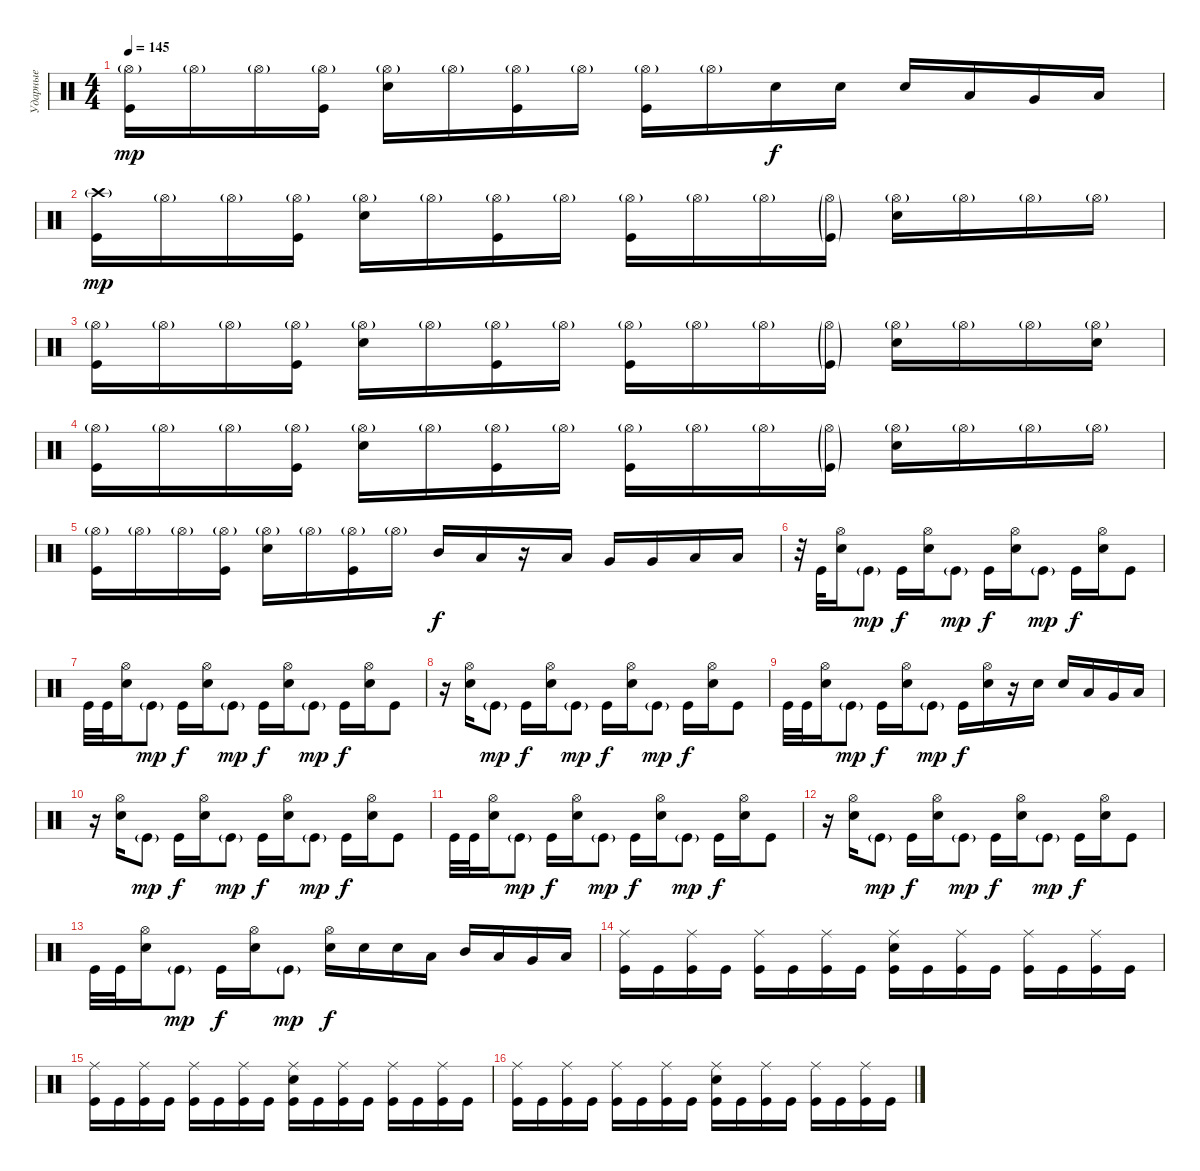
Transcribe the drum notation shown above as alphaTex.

\track ("Ударные" "Ударные") {instrument percussion}
\staff {score}
\articulation defaults
\ts (4 4)
\tempo 145
\clef neutral
\ks c
("Hi-Hat (open)"{g} "Kick (hit)").16{dy mp} "Hi-Hat (open)"{g}.16 "Hi-Hat (open)"{g}.16 ("Hi-Hat (open)"{g} "Kick (hit)").16 ("Hi-Hat (open)"{g} "Snare (hit) 2").16 "Hi-Hat (open)"{g}.16 ("Hi-Hat (open)"{g} "Kick (hit)").16 "Hi-Hat (open)"{g}.16 ("Hi-Hat (open)"{g} "Kick (hit)").16 "Hi-Hat (open)"{g}.16 "Snare (hit) 2".16{dy f} "Snare (hit) 2".16 "Snare (hit) 2".16 "Low Tom (hit)".16 "Very Low Tom (hit)".16 "Low Floor Tom (hit)".16 |
("Crash high (hit)"{g} "Kick (hit)").16{dy mp} "Hi-Hat (open)"{g}.16 "Hi-Hat (open)"{g}.16 ("Hi-Hat (open)"{g} "Kick (hit)").16 ("Hi-Hat (open)"{g} "Snare (hit) 2").16 "Hi-Hat (open)"{g}.16 ("Hi-Hat (open)"{g} "Kick (hit)").16 "Hi-Hat (open)"{g}.16 ("Hi-Hat (open)"{g} "Kick (hit)").16 "Hi-Hat (open)"{g}.16 "Hi-Hat (open)"{g}.16 ("Hi-Hat (open)"{g} "Kick (hit)"{g}).16 ("Hi-Hat (open)"{g} "Snare (hit) 2").16 "Hi-Hat (open)"{g}.16 "Hi-Hat (open)"{g}.16 "Hi-Hat (open)"{g}.16 |
("Hi-Hat (open)"{g} "Kick (hit)").16 "Hi-Hat (open)"{g}.16 "Hi-Hat (open)"{g}.16 ("Hi-Hat (open)"{g} "Kick (hit)").16 ("Hi-Hat (open)"{g} "Snare (hit) 2").16 "Hi-Hat (open)"{g}.16 ("Hi-Hat (open)"{g} "Kick (hit)").16 "Hi-Hat (open)"{g}.16 ("Hi-Hat (open)"{g} "Kick (hit)").16 "Hi-Hat (open)"{g}.16 "Hi-Hat (open)"{g}.16 ("Hi-Hat (open)"{g} "Kick (hit)"{g}).16 ("Hi-Hat (open)"{g} "Snare (hit) 2").16 "Hi-Hat (open)"{g}.16 "Hi-Hat (open)"{g}.16 ("Hi-Hat (open)"{g} "Snare (hit) 2").16 |
("Hi-Hat (open)"{g} "Kick (hit)").16 "Hi-Hat (open)"{g}.16 "Hi-Hat (open)"{g}.16 ("Hi-Hat (open)"{g} "Kick (hit)").16 ("Hi-Hat (open)"{g} "Snare (hit) 2").16 "Hi-Hat (open)"{g}.16 ("Hi-Hat (open)"{g} "Kick (hit)").16 "Hi-Hat (open)"{g}.16 ("Hi-Hat (open)"{g} "Kick (hit)").16 "Hi-Hat (open)"{g}.16 "Hi-Hat (open)"{g}.16 ("Hi-Hat (open)"{g} "Kick (hit)"{g}).16 ("Hi-Hat (open)"{g} "Snare (hit) 2").16 "Hi-Hat (open)"{g}.16 "Hi-Hat (open)"{g}.16 "Hi-Hat (open)"{g}.16 |
("Hi-Hat (open)"{g} "Kick (hit)").16 "Hi-Hat (open)"{g}.16 "Hi-Hat (open)"{g}.16 ("Hi-Hat (open)"{g} "Kick (hit)").16 ("Hi-Hat (open)"{g} "Snare (hit) 2").16 "Hi-Hat (open)"{g}.16 ("Hi-Hat (open)"{g} "Kick (hit)").16 "Hi-Hat (open)"{g}.16 "Mid Tom (hit)".16{dy f} "Low Tom (hit)".16 r.16 "Low Tom (hit)".16 "Very Low Tom (hit)".16 "Very Low Tom (hit)".16 "Low Floor Tom (hit)".16 "Low Floor Tom (hit)".16 |
r.32 "Kick (hit)".32 ("Hi-Hat (open)" "Snare (hit) 2").16 "Kick (hit)"{g}.8{dy mp} "Kick (hit)".16{dy f} ("Hi-Hat (open)" "Snare (hit) 2").16 "Kick (hit)"{g}.8{dy mp} "Kick (hit)".16{dy f} ("Hi-Hat (open)" "Snare (hit) 2").16 "Kick (hit)"{g}.8{dy mp} "Kick (hit)".16{dy f} ("Hi-Hat (open)" "Snare (hit) 2").16 "Kick (hit)".8 |
"Kick (hit)".32 "Kick (hit)".32 ("Hi-Hat (open)" "Snare (hit) 2").16 "Kick (hit)"{g}.8{dy mp} "Kick (hit)".16{dy f} ("Hi-Hat (open)" "Snare (hit) 2").16 "Kick (hit)"{g}.8{dy mp} "Kick (hit)".16{dy f} ("Hi-Hat (open)" "Snare (hit) 2").16 "Kick (hit)"{g}.8{dy mp} "Kick (hit)".16{dy f} ("Hi-Hat (open)" "Snare (hit) 2").16 "Kick (hit)".8 |
r.16 ("Hi-Hat (open)" "Snare (hit) 2").16 "Kick (hit)"{g}.8{dy mp} "Kick (hit)".16{dy f} ("Hi-Hat (open)" "Snare (hit) 2").16 "Kick (hit)"{g}.8{dy mp} "Kick (hit)".16{dy f} ("Hi-Hat (open)" "Snare (hit) 2").16 "Kick (hit)"{g}.8{dy mp} "Kick (hit)".16{dy f} ("Hi-Hat (open)" "Snare (hit) 2").16 "Kick (hit)".8 |
"Kick (hit)".32 "Kick (hit)".32 ("Hi-Hat (open)" "Snare (hit) 2").16 "Kick (hit)"{g}.8{dy mp} "Kick (hit)".16{dy f} ("Hi-Hat (open)" "Snare (hit) 2").16 "Kick (hit)"{g}.8{dy mp} "Kick (hit)".16{dy f} ("Hi-Hat (open)" "Snare (hit) 2").16 r.16 "Snare (hit) 2".16 "Snare (hit) 2".16 "Low Tom (hit)".16 "Very Low Tom (hit)".16 "Low Floor Tom (hit)".16 |
r.16 ("Hi-Hat (open)" "Snare (hit) 2").16 "Kick (hit)"{g}.8{dy mp} "Kick (hit)".16{dy f} ("Hi-Hat (open)" "Snare (hit) 2").16 "Kick (hit)"{g}.8{dy mp} "Kick (hit)".16{dy f} ("Hi-Hat (open)" "Snare (hit) 2").16 "Kick (hit)"{g}.8{dy mp} "Kick (hit)".16{dy f} ("Hi-Hat (open)" "Snare (hit) 2").16 "Kick (hit)".8 |
"Kick (hit)".32 "Kick (hit)".32 ("Hi-Hat (open)" "Snare (hit) 2").16 "Kick (hit)"{g}.8{dy mp} "Kick (hit)".16{dy f} ("Hi-Hat (open)" "Snare (hit) 2").16 "Kick (hit)"{g}.8{dy mp} "Kick (hit)".16{dy f} ("Hi-Hat (open)" "Snare (hit) 2").16 "Kick (hit)"{g}.8{dy mp} "Kick (hit)".16{dy f} ("Hi-Hat (open)" "Snare (hit) 2").16 "Kick (hit)".8 |
r.16 ("Hi-Hat (open)" "Snare (hit) 2").16 "Kick (hit)"{g}.8{dy mp} "Kick (hit)".16{dy f} ("Hi-Hat (open)" "Snare (hit) 2").16 "Kick (hit)"{g}.8{dy mp} "Kick (hit)".16{dy f} ("Hi-Hat (open)" "Snare (hit) 2").16 "Kick (hit)"{g}.8{dy mp} "Kick (hit)".16{dy f} ("Hi-Hat (open)" "Snare (hit) 2").16 "Kick (hit)".8 |
"Kick (hit)".32 "Kick (hit)".32 ("Hi-Hat (open)" "Snare (hit) 2").16 "Kick (hit)"{g}.8{dy mp} "Kick (hit)".16{dy f} ("Hi-Hat (open)" "Snare (hit) 2").16 "Kick (hit)"{g}.8{dy mp} ("Hi-Hat (open)" "Snare (hit) 2").16{dy f} "Snare (hit) 2".16 "Snare (hit) 2".16 "Low Tom (hit)".16 "Mid Tom (hit)".16 "Low Tom (hit)".16 "Very Low Tom (hit)".16 "Low Floor Tom (hit)".16 |
("Ride (middle)" "Kick (hit)").16 "Kick (hit)".16 ("Ride (middle)" "Kick (hit)").16 "Kick (hit)".16 ("Ride (middle)" "Kick (hit)").16 "Kick (hit)".16 ("Ride (middle)" "Kick (hit)").16 "Kick (hit)".16 ("Ride (middle)" "Snare (hit) 2" "Kick (hit)").16 "Kick (hit)".16 ("Ride (middle)" "Kick (hit)").16 "Kick (hit)".16 ("Ride (middle)" "Kick (hit)").16 "Kick (hit)".16 ("Ride (middle)" "Kick (hit)").16 "Kick (hit)".16 |
("Ride (middle)" "Kick (hit)").16 "Kick (hit)".16 ("Ride (middle)" "Kick (hit)").16 "Kick (hit)".16 ("Ride (middle)" "Kick (hit)").16 "Kick (hit)".16 ("Ride (middle)" "Kick (hit)").16 "Kick (hit)".16 ("Ride (middle)" "Snare (hit) 2" "Kick (hit)").16 "Kick (hit)".16 ("Ride (middle)" "Kick (hit)").16 "Kick (hit)".16 ("Ride (middle)" "Kick (hit)").16 "Kick (hit)".16 ("Ride (middle)" "Kick (hit)").16 "Kick (hit)".16 |
("Ride (middle)" "Kick (hit)").16 "Kick (hit)".16 ("Ride (middle)" "Kick (hit)").16 "Kick (hit)".16 ("Ride (middle)" "Kick (hit)").16 "Kick (hit)".16 ("Ride (middle)" "Kick (hit)").16 "Kick (hit)".16 ("Ride (middle)" "Snare (hit) 2" "Kick (hit)").16 "Kick (hit)".16 ("Ride (middle)" "Kick (hit)").16 "Kick (hit)".16 ("Ride (middle)" "Kick (hit)").16 "Kick (hit)".16 ("Ride (middle)" "Kick (hit)").16 "Kick (hit)".16
